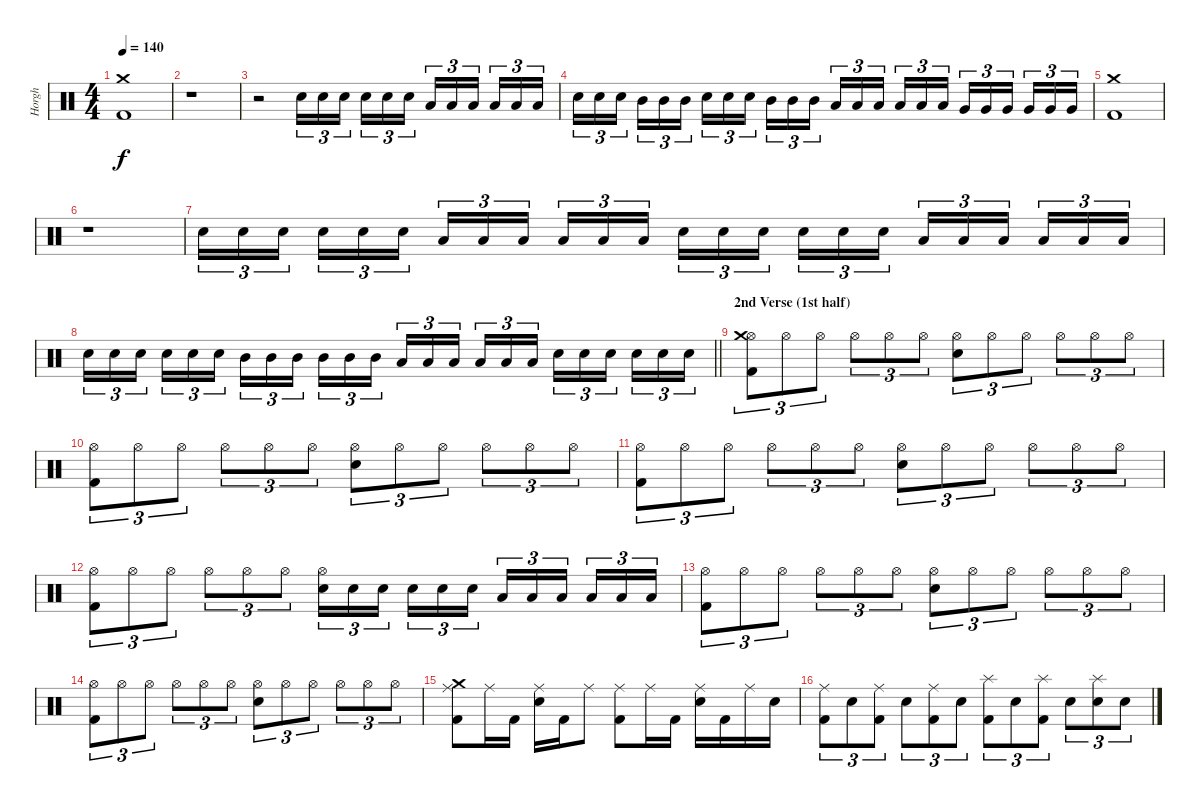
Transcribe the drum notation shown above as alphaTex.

\track ("Horgh" "Horgh") {instrument percussion}
\staff {score}
\articulation defaults
\ts (4 4)
\tempo 140
\clef neutral
\ks c
("Kick (hit) 2" "Crash medium (hit)").1{dy f} |
r.1 |
r.2 "Snare (hit) 2".16{tu (3 2)} "Snare (hit) 2".16{tu (3 2)} "Snare (hit) 2".16{tu (3 2) beam splitsecondary} "Snare (hit) 2".16{tu (3 2)} "Snare (hit) 2".16{tu (3 2)} "Snare (hit) 2".16{tu (3 2)} "Low Tom (hit)".16{tu (3 2)} "Low Tom (hit)".16{tu (3 2)} "Low Tom (hit)".16{tu (3 2) beam splitsecondary} "Low Tom (hit)".16{tu (3 2)} "Low Tom (hit)".16{tu (3 2)} "Low Tom (hit)".16{tu (3 2)} |
"Snare (hit) 2".16{tu (3 2)} "Snare (hit) 2".16{tu (3 2)} "Snare (hit) 2".16{tu (3 2) beam splitsecondary} "Mid Tom (hit)".16{tu (3 2)} "Mid Tom (hit)".16{tu (3 2)} "Mid Tom (hit)".16{tu (3 2)} "Snare (hit) 2".16{tu (3 2)} "Snare (hit) 2".16{tu (3 2)} "Snare (hit) 2".16{tu (3 2) beam splitsecondary} "Mid Tom (hit)".16{tu (3 2)} "Mid Tom (hit)".16{tu (3 2)} "Mid Tom (hit)".16{tu (3 2)} "Low Tom (hit)".16{tu (3 2)} "Low Tom (hit)".16{tu (3 2)} "Low Tom (hit)".16{tu (3 2) beam splitsecondary} "Low Tom (hit)".16{tu (3 2)} "Low Tom (hit)".16{tu (3 2)} "Low Tom (hit)".16{tu (3 2)} "Very Low Tom (hit)".16{tu (3 2)} "Very Low Tom (hit)".16{tu (3 2)} "Very Low Tom (hit)".16{tu (3 2) beam splitsecondary} "Very Low Tom (hit)".16{tu (3 2)} "Very Low Tom (hit)".16{tu (3 2)} "Very Low Tom (hit)".16{tu (3 2)} |
("Kick (hit) 2" "Crash medium (hit)").1 |
r.1 |
"Snare (hit) 2".16{tu (3 2)} "Snare (hit) 2".16{tu (3 2)} "Snare (hit) 2".16{tu (3 2) beam splitsecondary} "Snare (hit) 2".16{tu (3 2)} "Snare (hit) 2".16{tu (3 2)} "Snare (hit) 2".16{tu (3 2)} "Low Tom (hit)".16{tu (3 2)} "Low Tom (hit)".16{tu (3 2)} "Low Tom (hit)".16{tu (3 2) beam splitsecondary} "Low Tom (hit)".16{tu (3 2)} "Low Tom (hit)".16{tu (3 2)} "Low Tom (hit)".16{tu (3 2)} "Snare (hit) 2".16{tu (3 2)} "Snare (hit) 2".16{tu (3 2)} "Snare (hit) 2".16{tu (3 2) beam splitsecondary} "Snare (hit) 2".16{tu (3 2)} "Snare (hit) 2".16{tu (3 2)} "Snare (hit) 2".16{tu (3 2)} "Low Tom (hit)".16{tu (3 2)} "Low Tom (hit)".16{tu (3 2)} "Low Tom (hit)".16{tu (3 2) beam splitsecondary} "Low Tom (hit)".16{tu (3 2)} "Low Tom (hit)".16{tu (3 2)} "Low Tom (hit)".16{tu (3 2)} |
\barLineRight lightlight "Snare (hit) 2".16{tu (3 2)} "Snare (hit) 2".16{tu (3 2)} "Snare (hit) 2".16{tu (3 2) beam splitsecondary} "Snare (hit) 2".16{tu (3 2)} "Snare (hit) 2".16{tu (3 2)} "Snare (hit) 2".16{tu (3 2)} "Mid Tom (hit)".16{tu (3 2)} "Mid Tom (hit)".16{tu (3 2)} "Mid Tom (hit)".16{tu (3 2) beam splitsecondary} "Mid Tom (hit)".16{tu (3 2)} "Mid Tom (hit)".16{tu (3 2)} "Mid Tom (hit)".16{tu (3 2)} "Low Tom (hit)".16{tu (3 2)} "Low Tom (hit)".16{tu (3 2)} "Low Tom (hit)".16{tu (3 2) beam splitsecondary} "Low Tom (hit)".16{tu (3 2)} "Low Tom (hit)".16{tu (3 2)} "Low Tom (hit)".16{tu (3 2)} "Snare (hit) 2".16{tu (3 2)} "Snare (hit) 2".16{tu (3 2)} "Snare (hit) 2".16{tu (3 2) beam splitsecondary} "Snare (hit) 2".16{tu (3 2)} "Snare (hit) 2".16{tu (3 2)} "Snare (hit) 2".16{tu (3 2)}
|
\section ("" "2nd Verse (1st half)")
("Kick (hit) 2" "Hi-Hat (open)" "Crash medium (hit)").8{tu (3 2)} "Hi-Hat (open)".8{tu (3 2)} "Hi-Hat (open)".8{tu (3 2)} "Hi-Hat (open)".8{tu (3 2)} "Hi-Hat (open)".8{tu (3 2)} "Hi-Hat (open)".8{tu (3 2)} ("Electric Snare (hit)" "Hi-Hat (open)").8{tu (3 2)} "Hi-Hat (open)".8{tu (3 2)} "Hi-Hat (open)".8{tu (3 2)} "Hi-Hat (open)".8{tu (3 2)} "Hi-Hat (open)".8{tu (3 2)} "Hi-Hat (open)".8{tu (3 2)} |
("Kick (hit) 2" "Hi-Hat (open)").8{tu (3 2)} "Hi-Hat (open)".8{tu (3 2)} "Hi-Hat (open)".8{tu (3 2)} "Hi-Hat (open)".8{tu (3 2)} "Hi-Hat (open)".8{tu (3 2)} "Hi-Hat (open)".8{tu (3 2)} ("Electric Snare (hit)" "Hi-Hat (open)").8{tu (3 2)} "Hi-Hat (open)".8{tu (3 2)} "Hi-Hat (open)".8{tu (3 2)} "Hi-Hat (open)".8{tu (3 2)} "Hi-Hat (open)".8{tu (3 2)} "Hi-Hat (open)".8{tu (3 2)} |
("Kick (hit) 2" "Hi-Hat (open)").8{tu (3 2)} "Hi-Hat (open)".8{tu (3 2)} "Hi-Hat (open)".8{tu (3 2)} "Hi-Hat (open)".8{tu (3 2)} "Hi-Hat (open)".8{tu (3 2)} "Hi-Hat (open)".8{tu (3 2)} ("Electric Snare (hit)" "Hi-Hat (open)").8{tu (3 2)} "Hi-Hat (open)".8{tu (3 2)} "Hi-Hat (open)".8{tu (3 2)} "Hi-Hat (open)".8{tu (3 2)} "Hi-Hat (open)".8{tu (3 2)} "Hi-Hat (open)".8{tu (3 2)} |
("Kick (hit) 2" "Hi-Hat (open)").8{tu (3 2)} "Hi-Hat (open)".8{tu (3 2)} "Hi-Hat (open)".8{tu (3 2)} "Hi-Hat (open)".8{tu (3 2)} "Hi-Hat (open)".8{tu (3 2)} "Hi-Hat (open)".8{tu (3 2)} ("Snare (hit) 2" "Hi-Hat (open)").16{tu (3 2)} "Snare (hit) 2".16{tu (3 2)} "Snare (hit) 2".16{tu (3 2) beam splitsecondary} "Snare (hit) 2".16{tu (3 2)} "Snare (hit) 2".16{tu (3 2)} "Snare (hit) 2".16{tu (3 2)} "Low Tom (hit)".16{tu (3 2)} "Low Tom (hit)".16{tu (3 2)} "Low Tom (hit)".16{tu (3 2) beam splitsecondary} "Low Tom (hit)".16{tu (3 2)} "Low Tom (hit)".16{tu (3 2)} "Low Tom (hit)".16{tu (3 2)} |
("Kick (hit) 2" "Hi-Hat (open)").8{tu (3 2)} "Hi-Hat (open)".8{tu (3 2)} "Hi-Hat (open)".8{tu (3 2)} "Hi-Hat (open)".8{tu (3 2)} "Hi-Hat (open)".8{tu (3 2)} "Hi-Hat (open)".8{tu (3 2)} ("Electric Snare (hit)" "Hi-Hat (open)").8{tu (3 2)} "Hi-Hat (open)".8{tu (3 2)} "Hi-Hat (open)".8{tu (3 2)} "Hi-Hat (open)".8{tu (3 2)} "Hi-Hat (open)".8{tu (3 2)} "Hi-Hat (open)".8{tu (3 2)} |
("Kick (hit) 2" "Hi-Hat (open)").8{tu (3 2)} "Hi-Hat (open)".8{tu (3 2)} "Hi-Hat (open)".8{tu (3 2)} "Hi-Hat (open)".8{tu (3 2)} "Hi-Hat (open)".8{tu (3 2)} "Hi-Hat (open)".8{tu (3 2)} ("Electric Snare (hit)" "Hi-Hat (open)").8{tu (3 2)} "Hi-Hat (open)".8{tu (3 2)} "Hi-Hat (open)".8{tu (3 2)} "Hi-Hat (open)".8{tu (3 2)} "Hi-Hat (open)".8{tu (3 2)} "Hi-Hat (open)".8{tu (3 2)} |
("Kick (hit) 2" "Ride (middle)" "Crash medium (hit)").8 "Ride (middle)".16 "Kick (hit) 2".16 ("Electric Snare (hit)" "Ride (middle)").16 "Kick (hit) 2".16 "Ride (middle)".8 ("Kick (hit) 2" "Ride (middle)").8 "Ride (middle)".16 "Kick (hit) 2".16 ("Electric Snare (hit)" "Ride (middle)").16 "Kick (hit) 2".16 "Ride (middle)".16 "Electric Snare (hit)".16 |
("Kick (hit) 2" "Ride (middle)").8{tu (3 2)} "Electric Snare (hit)".8{tu (3 2)} ("Kick (hit) 2" "Ride (middle)").8{tu (3 2)} "Electric Snare (hit)".8{tu (3 2)} ("Kick (hit) 2" "Ride (middle)").8{tu (3 2)} "Electric Snare (hit)".8{tu (3 2)} ("Kick (hit) 2" "Splash (hit)").8{tu (3 2)} "Electric Snare (hit)".8{tu (3 2)} ("Kick (hit) 2" "Splash (hit)").8{tu (3 2)} "Electric Snare (hit)".8{tu (3 2)} ("Electric Snare (hit)" "Splash (hit)").8{tu (3 2)} "Electric Snare (hit)".8{tu (3 2)}
